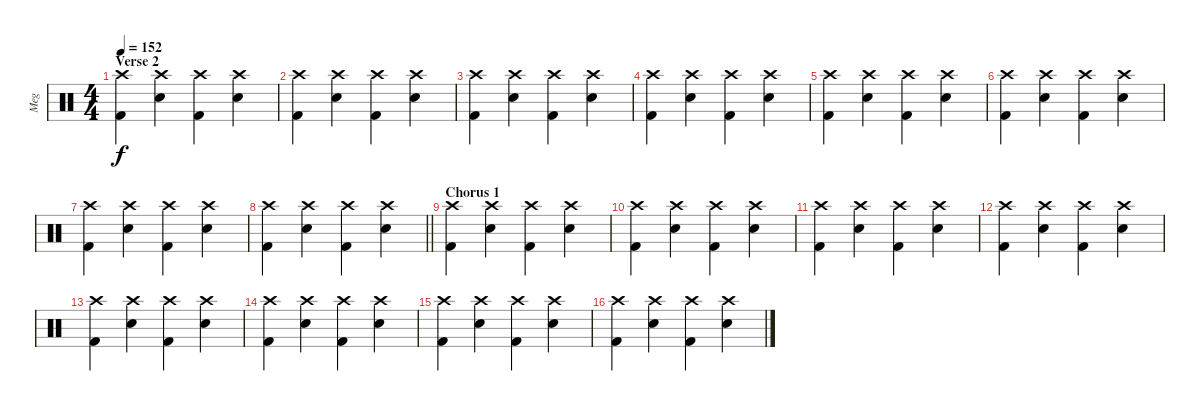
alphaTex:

\track ("Meg" "Meg") {instrument percussion}
\staff {score}
\articulation defaults
\ts (4 4)
\section ("" "Verse 2")
\tempo 152
\clef neutral
\ks c
("Crash high (hit)" "Kick (hit) 2").4{dy f} ("Crash high (hit)" "Electric Snare (hit)").4 ("Crash high (hit)" "Kick (hit) 2").4 ("Crash high (hit)" "Electric Snare (hit)").4 |
("Crash high (hit)" "Kick (hit) 2").4 ("Crash high (hit)" "Electric Snare (hit)").4 ("Crash high (hit)" "Kick (hit) 2").4 ("Crash high (hit)" "Electric Snare (hit)").4 |
("Crash high (hit)" "Kick (hit) 2").4 ("Crash high (hit)" "Electric Snare (hit)").4 ("Crash high (hit)" "Kick (hit) 2").4 ("Crash high (hit)" "Electric Snare (hit)").4 |
("Crash high (hit)" "Kick (hit) 2").4 ("Crash high (hit)" "Electric Snare (hit)").4 ("Crash high (hit)" "Kick (hit) 2").4 ("Crash high (hit)" "Electric Snare (hit)").4 |
("Crash high (hit)" "Kick (hit) 2").4 ("Crash high (hit)" "Electric Snare (hit)").4 ("Crash high (hit)" "Kick (hit) 2").4 ("Crash high (hit)" "Electric Snare (hit)").4 |
("Crash high (hit)" "Kick (hit) 2").4 ("Crash high (hit)" "Electric Snare (hit)").4 ("Crash high (hit)" "Kick (hit) 2").4 ("Crash high (hit)" "Electric Snare (hit)").4 |
("Crash high (hit)" "Kick (hit) 2").4 ("Crash high (hit)" "Electric Snare (hit)").4 ("Crash high (hit)" "Kick (hit) 2").4 ("Crash high (hit)" "Electric Snare (hit)").4 |
\barLineRight lightlight
("Crash high (hit)" "Kick (hit) 2").4 ("Crash high (hit)" "Electric Snare (hit)").4 ("Crash high (hit)" "Kick (hit) 2").4 ("Crash high (hit)" "Electric Snare (hit)").4 |
\section ("" "Chorus 1")
("Crash high (hit)" "Kick (hit) 2").4 ("Crash high (hit)" "Electric Snare (hit)").4 ("Crash high (hit)" "Kick (hit) 2").4 ("Crash high (hit)" "Electric Snare (hit)").4 |
("Crash high (hit)" "Kick (hit) 2").4 ("Crash high (hit)" "Electric Snare (hit)").4 ("Crash high (hit)" "Kick (hit) 2").4 ("Crash high (hit)" "Electric Snare (hit)").4 |
("Crash high (hit)" "Kick (hit) 2").4 ("Crash high (hit)" "Electric Snare (hit)").4 ("Crash high (hit)" "Kick (hit) 2").4 ("Crash high (hit)" "Electric Snare (hit)").4 |
("Crash high (hit)" "Kick (hit) 2").4 ("Crash high (hit)" "Electric Snare (hit)").4 ("Crash high (hit)" "Kick (hit) 2").4 ("Crash high (hit)" "Electric Snare (hit)").4 |
("Crash high (hit)" "Kick (hit) 2").4 ("Crash high (hit)" "Electric Snare (hit)").4 ("Crash high (hit)" "Kick (hit) 2").4 ("Crash high (hit)" "Electric Snare (hit)").4 |
("Crash high (hit)" "Kick (hit) 2").4 ("Crash high (hit)" "Electric Snare (hit)").4 ("Crash high (hit)" "Kick (hit) 2").4 ("Crash high (hit)" "Electric Snare (hit)").4 |
("Crash high (hit)" "Kick (hit) 2").4 ("Crash high (hit)" "Electric Snare (hit)").4 ("Crash high (hit)" "Kick (hit) 2").4 ("Crash high (hit)" "Electric Snare (hit)").4 |
("Crash high (hit)" "Kick (hit) 2").4 ("Crash high (hit)" "Electric Snare (hit)").4 ("Crash high (hit)" "Kick (hit) 2").4 ("Crash high (hit)" "Electric Snare (hit)").4
